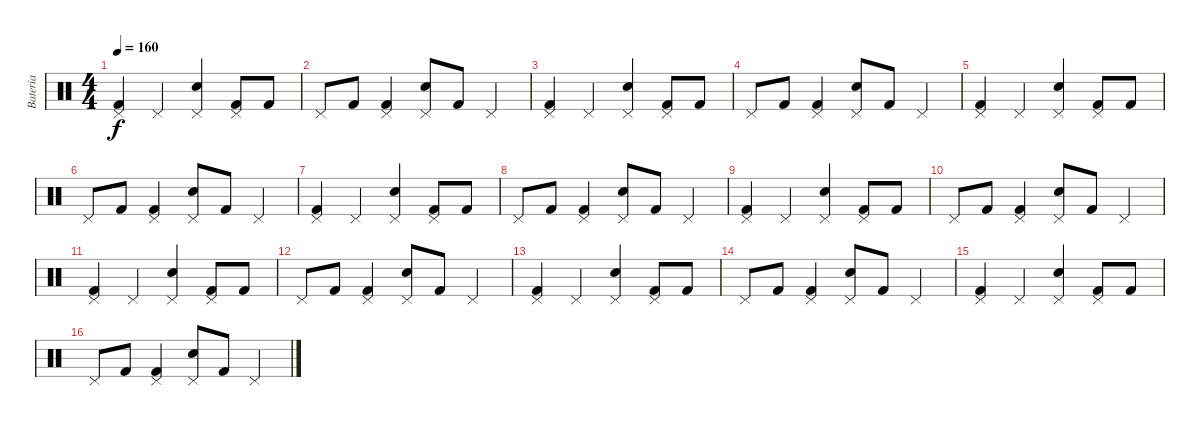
\track ("Batería" "Batería") {instrument percussion}
\staff {score}
\articulation defaults
\ts (4 4)
\tempo 160
\clef neutral
\ks c
("Kick (hit) 2" "Pedal Hi-Hat (hit)").4{dy f} "Pedal Hi-Hat (hit)".4 ("Electric Snare (hit)" "Pedal Hi-Hat (hit)").4 ("Kick (hit) 2" "Pedal Hi-Hat (hit)").8 "Kick (hit) 2".8 |
"Pedal Hi-Hat (hit)".8 "Kick (hit) 2".8 ("Kick (hit) 2" "Pedal Hi-Hat (hit)").4 ("Electric Snare (hit)" "Pedal Hi-Hat (hit)").8 "Kick (hit) 2".8 "Pedal Hi-Hat (hit)".4 |
("Kick (hit) 2" "Pedal Hi-Hat (hit)").4 "Pedal Hi-Hat (hit)".4 ("Electric Snare (hit)" "Pedal Hi-Hat (hit)").4 ("Kick (hit) 2" "Pedal Hi-Hat (hit)").8 "Kick (hit) 2".8 |
"Pedal Hi-Hat (hit)".8 "Kick (hit) 2".8 ("Kick (hit) 2" "Pedal Hi-Hat (hit)").4 ("Electric Snare (hit)" "Pedal Hi-Hat (hit)").8 "Kick (hit) 2".8 "Pedal Hi-Hat (hit)".4 |
("Kick (hit) 2" "Pedal Hi-Hat (hit)").4 "Pedal Hi-Hat (hit)".4 ("Electric Snare (hit)" "Pedal Hi-Hat (hit)").4 ("Kick (hit) 2" "Pedal Hi-Hat (hit)").8 "Kick (hit) 2".8 |
"Pedal Hi-Hat (hit)".8 "Kick (hit) 2".8 ("Kick (hit) 2" "Pedal Hi-Hat (hit)").4 ("Electric Snare (hit)" "Pedal Hi-Hat (hit)").8 "Kick (hit) 2".8 "Pedal Hi-Hat (hit)".4 |
("Kick (hit) 2" "Pedal Hi-Hat (hit)").4 "Pedal Hi-Hat (hit)".4 ("Electric Snare (hit)" "Pedal Hi-Hat (hit)").4 ("Kick (hit) 2" "Pedal Hi-Hat (hit)").8 "Kick (hit) 2".8 |
"Pedal Hi-Hat (hit)".8 "Kick (hit) 2".8 ("Kick (hit) 2" "Pedal Hi-Hat (hit)").4 ("Electric Snare (hit)" "Pedal Hi-Hat (hit)").8 "Kick (hit) 2".8 "Pedal Hi-Hat (hit)".4 |
("Kick (hit) 2" "Pedal Hi-Hat (hit)").4 "Pedal Hi-Hat (hit)".4 ("Electric Snare (hit)" "Pedal Hi-Hat (hit)").4 ("Kick (hit) 2" "Pedal Hi-Hat (hit)").8 "Kick (hit) 2".8 |
"Pedal Hi-Hat (hit)".8 "Kick (hit) 2".8 ("Kick (hit) 2" "Pedal Hi-Hat (hit)").4 ("Electric Snare (hit)" "Pedal Hi-Hat (hit)").8 "Kick (hit) 2".8 "Pedal Hi-Hat (hit)".4 |
("Kick (hit) 2" "Pedal Hi-Hat (hit)").4 "Pedal Hi-Hat (hit)".4 ("Electric Snare (hit)" "Pedal Hi-Hat (hit)").4 ("Kick (hit) 2" "Pedal Hi-Hat (hit)").8 "Kick (hit) 2".8 |
"Pedal Hi-Hat (hit)".8 "Kick (hit) 2".8 ("Kick (hit) 2" "Pedal Hi-Hat (hit)").4 ("Electric Snare (hit)" "Pedal Hi-Hat (hit)").8 "Kick (hit) 2".8 "Pedal Hi-Hat (hit)".4 |
("Kick (hit) 2" "Pedal Hi-Hat (hit)").4 "Pedal Hi-Hat (hit)".4 ("Electric Snare (hit)" "Pedal Hi-Hat (hit)").4 ("Kick (hit) 2" "Pedal Hi-Hat (hit)").8 "Kick (hit) 2".8 |
"Pedal Hi-Hat (hit)".8 "Kick (hit) 2".8 ("Kick (hit) 2" "Pedal Hi-Hat (hit)").4 ("Electric Snare (hit)" "Pedal Hi-Hat (hit)").8 "Kick (hit) 2".8 "Pedal Hi-Hat (hit)".4 |
("Kick (hit) 2" "Pedal Hi-Hat (hit)").4 "Pedal Hi-Hat (hit)".4 ("Electric Snare (hit)" "Pedal Hi-Hat (hit)").4 ("Kick (hit) 2" "Pedal Hi-Hat (hit)").8 "Kick (hit) 2".8 |
"Pedal Hi-Hat (hit)".8 "Kick (hit) 2".8 ("Kick (hit) 2" "Pedal Hi-Hat (hit)").4 ("Electric Snare (hit)" "Pedal Hi-Hat (hit)").8 "Kick (hit) 2".8 "Pedal Hi-Hat (hit)".4
